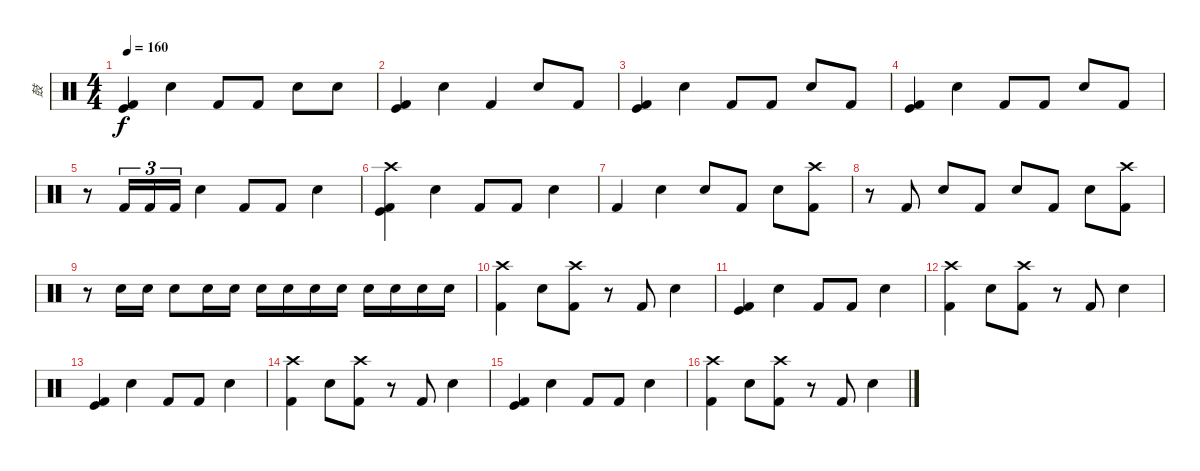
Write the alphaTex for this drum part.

\track ("鼓" "鼓") {instrument percussion}
\staff {score}
\articulation defaults
\ts (4 4)
\tempo 160
\clef neutral
\ks c
("Kick (hit) 2" "Kick (hit)").4{dy f} "Snare (hit) 2".4 "Kick (hit) 2".8 "Kick (hit) 2".8 "Snare (hit) 2".8 "Snare (hit) 2".8 |
("Kick (hit)" "Kick (hit) 2").4 "Snare (hit) 2".4 "Kick (hit) 2".4 "Snare (hit) 2".8 "Kick (hit) 2".8 |
("Kick (hit) 2" "Kick (hit)").4 "Snare (hit) 2".4 "Kick (hit) 2".8 "Kick (hit) 2".8 "Snare (hit) 2".8 "Kick (hit) 2".8 |
("Kick (hit)" "Kick (hit) 2").4 "Snare (hit) 2".4 "Kick (hit) 2".8 "Kick (hit) 2".8 "Snare (hit) 2".8 "Kick (hit) 2".8 |
r.8 "Kick (hit) 2".16{tu (3 2)} "Kick (hit) 2".16{tu (3 2)} "Kick (hit) 2".16{tu (3 2)} "Snare (hit) 2".4 "Kick (hit) 2".8 "Kick (hit) 2".8 "Snare (hit) 2".4 |
("Crash high (hit)" "Kick (hit) 2" "Kick (hit)").4 "Snare (hit) 2".4 "Kick (hit) 2".8 "Kick (hit) 2".8 "Snare (hit) 2".4 |
"Kick (hit) 2".4 "Snare (hit) 2".4 "Snare (hit) 2".8 "Kick (hit) 2".8 "Snare (hit) 2".8 ("Crash high (hit)" "Kick (hit) 2").8 |
r.8 "Kick (hit) 2".8 "Snare (hit) 2".8 "Kick (hit) 2".8 "Snare (hit) 2".8 "Kick (hit) 2".8 "Snare (hit) 2".8 ("Crash high (hit)" "Kick (hit) 2").8 |
r.8 "Snare (hit) 2".16 "Snare (hit) 2".16 "Snare (hit) 2".8 "Snare (hit) 2".16 "Snare (hit) 2".16 "Snare (hit) 2".16 "Snare (hit) 2".16 "Snare (hit) 2".16 "Snare (hit) 2".16 "Snare (hit) 2".16 "Snare (hit) 2".16 "Snare (hit) 2".16 "Snare (hit) 2".16 |
("Crash high (hit)" "Kick (hit) 2").4 "Snare (hit) 2".8 ("Crash high (hit)" "Kick (hit) 2").8 r.8 "Kick (hit) 2".8 "Snare (hit) 2".4 |
("Kick (hit) 2" "Kick (hit)").4 "Snare (hit) 2".4 "Kick (hit) 2".8 "Kick (hit) 2".8 "Snare (hit) 2".4 |
("Crash high (hit)" "Kick (hit) 2").4 "Snare (hit) 2".8 ("Crash high (hit)" "Kick (hit) 2").8 r.8 "Kick (hit) 2".8 "Snare (hit) 2".4 |
("Kick (hit) 2" "Kick (hit)").4 "Snare (hit) 2".4 "Kick (hit) 2".8 "Kick (hit) 2".8 "Snare (hit) 2".4 |
("Crash high (hit)" "Kick (hit) 2").4 "Snare (hit) 2".8 ("Crash high (hit)" "Kick (hit) 2").8 r.8 "Kick (hit) 2".8 "Snare (hit) 2".4 |
("Kick (hit) 2" "Kick (hit)").4 "Snare (hit) 2".4 "Kick (hit) 2".8 "Kick (hit) 2".8 "Snare (hit) 2".4 |
("Crash high (hit)" "Kick (hit) 2").4 "Snare (hit) 2".8 ("Crash high (hit)" "Kick (hit) 2").8 r.8 "Kick (hit) 2".8 "Snare (hit) 2".4
